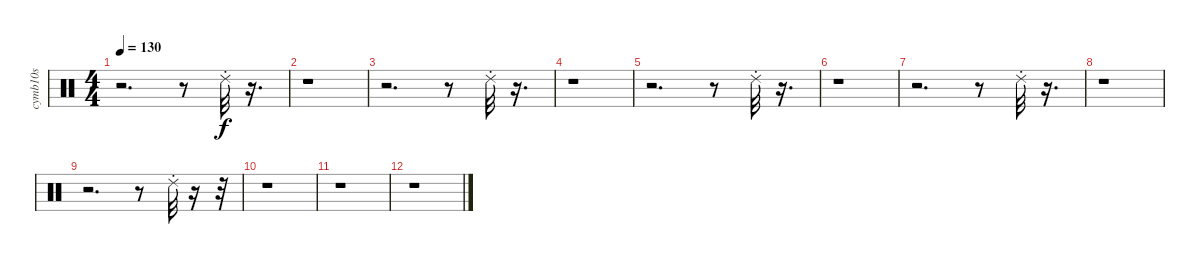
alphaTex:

\track ("cymb10s             " "cymb10s   ") {instrument percussion}
\staff {score}
\articulation defaults
\ts (4 4)
\tempo 130
\clef neutral
\ks c
r.2{d dy f} r.8 "Ride (choke) 2".32 r.16{d} |
r.1 |
r.2{d} r.8 "Ride (choke) 2".32 r.16{d} |
r.1 |
r.2{d} r.8 "Ride (choke) 2".32 r.16{d} |
r.1 |
r.2{d} r.8 "Ride (choke) 2".32 r.16{d} |
r.1 |
r.2{d} r.8 "Ride (choke) 2".32 r.16 r.32 |
r.1 |
r.1 |
r.1
